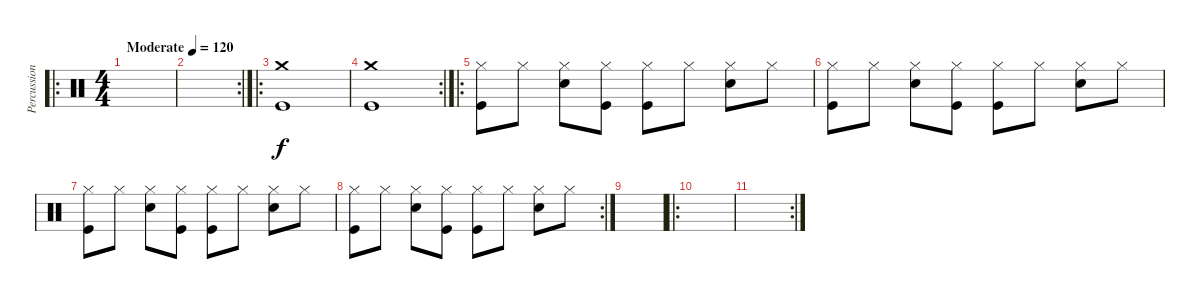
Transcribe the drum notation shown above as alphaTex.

\track ("Percussion" "Percussion") {instrument percussion}
\staff {score}
\articulation defaults
\ro
\ts (4 4)
\tempo (120 "Moderate")
\clef neutral
\ks c
|
\rc 2
|
\ro
("Crash medium (hit)" "Kick (hit)").1 |
\rc 2
("Crash medium (hit)" "Kick (hit)").1 |
\ro
("Hi-Hat (closed)" "Kick (hit)").8 "Hi-Hat (closed)".8 ("Hi-Hat (closed)" "Snare (hit) 2").8 ("Hi-Hat (closed)" "Kick (hit)").8 ("Hi-Hat (closed)" "Kick (hit)").8 "Hi-Hat (closed)".8 ("Hi-Hat (closed)" "Snare (hit) 2").8 "Hi-Hat (closed)".8 |
("Hi-Hat (closed)" "Kick (hit)").8 "Hi-Hat (closed)".8 ("Hi-Hat (closed)" "Snare (hit) 2").8 ("Hi-Hat (closed)" "Kick (hit)").8 ("Hi-Hat (closed)" "Kick (hit)").8 "Hi-Hat (closed)".8 ("Hi-Hat (closed)" "Snare (hit) 2").8 "Hi-Hat (closed)".8 |
("Hi-Hat (closed)" "Kick (hit)").8 "Hi-Hat (closed)".8 ("Hi-Hat (closed)" "Snare (hit) 2").8 ("Hi-Hat (closed)" "Kick (hit)").8 ("Hi-Hat (closed)" "Kick (hit)").8 "Hi-Hat (closed)".8 ("Hi-Hat (closed)" "Snare (hit) 2").8 "Hi-Hat (closed)".8 |
\rc 2
("Hi-Hat (closed)" "Kick (hit)").8 "Hi-Hat (closed)".8 ("Hi-Hat (closed)" "Snare (hit) 2").8 ("Hi-Hat (closed)" "Kick (hit)").8 ("Hi-Hat (closed)" "Kick (hit)").8 "Hi-Hat (closed)".8 ("Hi-Hat (closed)" "Snare (hit) 2").8 "Hi-Hat (closed)".8 |
|
\ro
|
\rc 2
